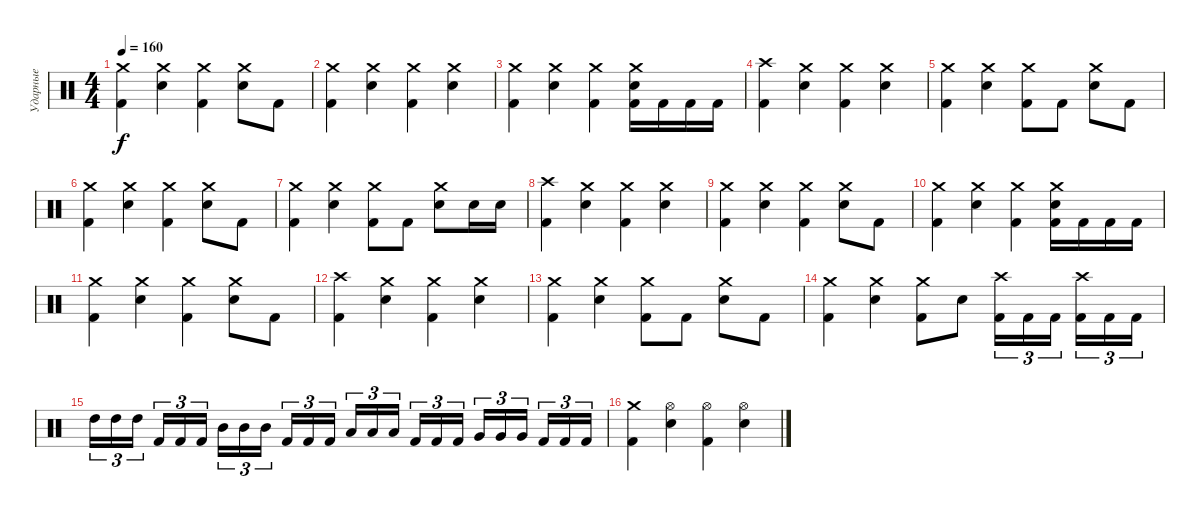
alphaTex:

\track ("Ударные" "Ударные") {instrument percussion}
\staff {score}
\articulation defaults
\ts (4 4)
\tempo 160
\clef neutral
\ks c
("Crash medium (hit)" "Kick (hit) 2").4{dy f} ("Crash medium (hit)" "Electric Snare (hit)").4 ("Crash medium (hit)" "Kick (hit) 2").4 ("Crash medium (hit)" "Electric Snare (hit)").8 "Kick (hit) 2".8 |
("Crash medium (hit)" "Kick (hit) 2").4 ("Crash medium (hit)" "Electric Snare (hit)").4 ("Crash medium (hit)" "Kick (hit) 2").4 ("Crash medium (hit)" "Electric Snare (hit)").4 |
("Crash medium (hit)" "Kick (hit) 2").4 ("Crash medium (hit)" "Electric Snare (hit)").4 ("Crash medium (hit)" "Kick (hit) 2").4 ("Crash medium (hit)" "Electric Snare (hit)" "Kick (hit) 2").16 "Kick (hit) 2".16 "Kick (hit) 2".16 "Kick (hit) 2".16 |
("Crash high (hit)" "Kick (hit) 2").4 ("Crash medium (hit)" "Electric Snare (hit)").4 ("Crash medium (hit)" "Kick (hit) 2").4 ("Crash medium (hit)" "Electric Snare (hit)").4 |
("Crash medium (hit)" "Kick (hit) 2").4 ("Crash medium (hit)" "Electric Snare (hit)").4 ("Crash medium (hit)" "Kick (hit) 2").8 "Kick (hit) 2".8 ("Crash medium (hit)" "Electric Snare (hit)").8 "Kick (hit) 2".8 |
("Crash medium (hit)" "Kick (hit) 2").4 ("Crash medium (hit)" "Electric Snare (hit)").4 ("Crash medium (hit)" "Kick (hit) 2").4 ("Crash medium (hit)" "Electric Snare (hit)").8 "Kick (hit) 2".8 |
("Crash medium (hit)" "Kick (hit) 2").4 ("Crash medium (hit)" "Electric Snare (hit)").4 ("Crash medium (hit)" "Kick (hit) 2").8 "Kick (hit) 2".8 ("Crash medium (hit)" "Electric Snare (hit)").8 "Electric Snare (hit)".16 "Electric Snare (hit)".16 |
("Crash high (hit)" "Kick (hit) 2").4 ("Crash medium (hit)" "Electric Snare (hit)").4 ("Crash medium (hit)" "Kick (hit) 2").4 ("Crash medium (hit)" "Electric Snare (hit)").4 |
("Crash medium (hit)" "Kick (hit) 2").4 ("Crash medium (hit)" "Electric Snare (hit)").4 ("Crash medium (hit)" "Kick (hit) 2").4 ("Crash medium (hit)" "Electric Snare (hit)").8 "Kick (hit) 2".8 |
("Crash medium (hit)" "Kick (hit) 2").4 ("Crash medium (hit)" "Electric Snare (hit)").4 ("Crash medium (hit)" "Kick (hit) 2").4 ("Crash medium (hit)" "Electric Snare (hit)" "Kick (hit) 2").16 "Kick (hit) 2".16 "Kick (hit) 2".16 "Kick (hit) 2".16 |
("Crash medium (hit)" "Kick (hit) 2").4 ("Crash medium (hit)" "Electric Snare (hit)").4 ("Crash medium (hit)" "Kick (hit) 2").4 ("Crash medium (hit)" "Electric Snare (hit)").8 "Kick (hit) 2".8 |
("Crash high (hit)" "Kick (hit) 2").4 ("Crash medium (hit)" "Electric Snare (hit)").4 ("Crash medium (hit)" "Kick (hit) 2").4 ("Crash medium (hit)" "Electric Snare (hit)").4 |
("Crash medium (hit)" "Kick (hit) 2").4 ("Crash medium (hit)" "Electric Snare (hit)").4 ("Crash medium (hit)" "Kick (hit) 2").8 "Kick (hit) 2".8 ("Crash medium (hit)" "Electric Snare (hit)").8 "Kick (hit) 2".8 |
("Crash medium (hit)" "Kick (hit) 2").4 ("Crash medium (hit)" "Electric Snare (hit)").4 ("Crash medium (hit)" "Kick (hit) 2").8 "Electric Snare (hit)".8 ("Crash high (hit)" "Kick (hit) 2").16{tu (3 2)} "Kick (hit) 2".16{tu (3 2)} "Kick (hit) 2".16{tu (3 2) beam splitsecondary} ("Crash high (hit)" "Kick (hit) 2").16{tu (3 2)} "Kick (hit) 2".16{tu (3 2)} "Kick (hit) 2".16{tu (3 2)} |
"High Tom (hit)".16{tu (3 2)} "High Tom (hit)".16{tu (3 2)} "High Tom (hit)".16{tu (3 2) beam splitsecondary} "Kick (hit) 2".16{tu (3 2)} "Kick (hit) 2".16{tu (3 2)} "Kick (hit) 2".16{tu (3 2)} "Mid Tom (hit)".16{tu (3 2)} "Mid Tom (hit)".16{tu (3 2)} "Mid Tom (hit)".16{tu (3 2) beam splitsecondary} "Kick (hit) 2".16{tu (3 2)} "Kick (hit) 2".16{tu (3 2)} "Kick (hit) 2".16{tu (3 2)} "Low Tom (hit)".16{tu (3 2)} "Low Tom (hit)".16{tu (3 2)} "Low Tom (hit)".16{tu (3 2) beam splitsecondary} "Kick (hit) 2".16{tu (3 2)} "Kick (hit) 2".16{tu (3 2)} "Kick (hit) 2".16{tu (3 2)} "Very Low Tom (hit)".16{tu (3 2)} "Very Low Tom (hit)".16{tu (3 2)} "Very Low Tom (hit)".16{tu (3 2) beam splitsecondary} "Kick (hit) 2".16{tu (3 2)} "Kick (hit) 2".16{tu (3 2)} "Kick (hit) 2".16{tu (3 2)} |
("Crash medium (hit)" "Kick (hit) 2").4 ("Hi-Hat (open)" "Electric Snare (hit)").4 ("Hi-Hat (open)" "Kick (hit) 2").4 ("Hi-Hat (open)" "Electric Snare (hit)").4
